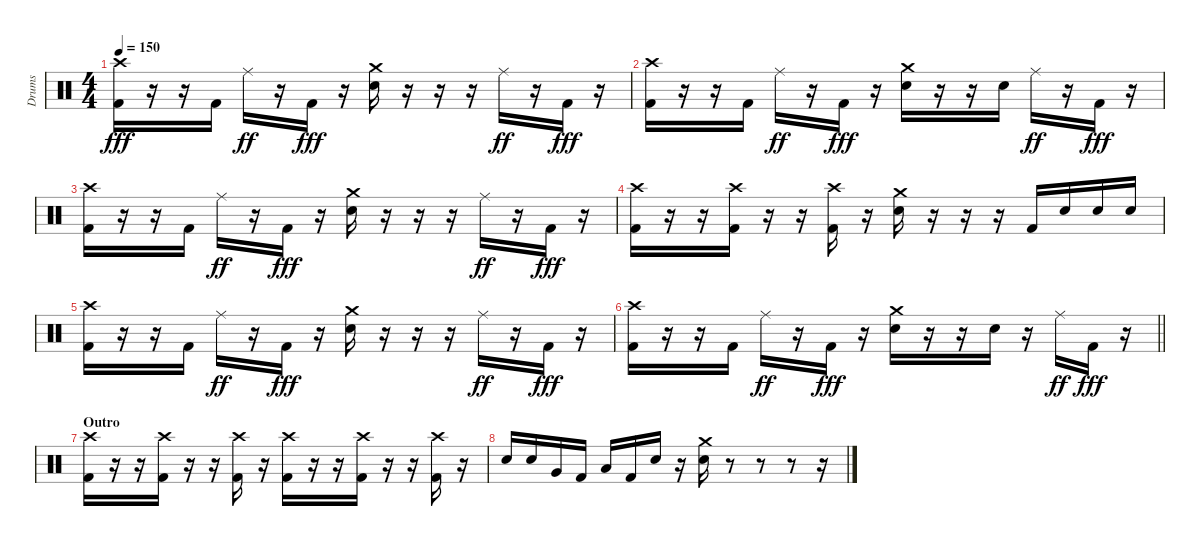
\track ("Drums" "Drums") {instrument percussion}
\staff {score}
\articulation defaults
\ts (4 4)
\tempo 150
\clef neutral
\ks c
("Crash high (hit)" "Kick (hit) 2").16{dy fff} r.16 r.16 "Kick (hit) 2".16 "Ride (middle)".16{dy ff} r.16 "Kick (hit) 2".16{dy fff} r.16 ("Crash medium (hit)" "Electric Snare (hit)").16 r.16 r.16 r.16 "Ride (middle)".16{dy ff} r.16 "Kick (hit) 2".16{dy fff} r.16 |
("Crash high (hit)" "Kick (hit) 2").16 r.16 r.16 "Kick (hit) 2".16 "Ride (middle)".16{dy ff} r.16 "Kick (hit) 2".16{dy fff} r.16 ("Crash medium (hit)" "Electric Snare (hit)").16 r.16 r.16 "Electric Snare (hit)".16 "Ride (middle)".16{dy ff} r.16 "Kick (hit) 2".16{dy fff} r.16 |
("Crash high (hit)" "Kick (hit) 2").16 r.16 r.16 "Kick (hit) 2".16 "Ride (middle)".16{dy ff} r.16 "Kick (hit) 2".16{dy fff} r.16 ("Crash medium (hit)" "Electric Snare (hit)").16 r.16 r.16 r.16 "Ride (middle)".16{dy ff} r.16 "Kick (hit) 2".16{dy fff} r.16 |
("Crash high (hit)" "Kick (hit) 2").16 r.16 r.16 ("Crash high (hit)" "Kick (hit) 2").16 r.16 r.16 ("Crash high (hit)" "Kick (hit) 2").16 r.16 ("Crash medium (hit)" "Electric Snare (hit)").16 r.16 r.16 r.16 "Kick (hit) 2".16 "Electric Snare (hit)".16 "Electric Snare (hit)".16 "Electric Snare (hit)".16 |
("Crash high (hit)" "Kick (hit) 2").16 r.16 r.16 "Kick (hit) 2".16 "Ride (middle)".16{dy ff} r.16 "Kick (hit) 2".16{dy fff} r.16 ("Crash medium (hit)" "Electric Snare (hit)").16 r.16 r.16 r.16 "Ride (middle)".16{dy ff} r.16 "Kick (hit) 2".16{dy fff} r.16 |
\barLineRight lightlight
("Crash high (hit)" "Kick (hit) 2").16 r.16 r.16 "Kick (hit) 2".16 "Ride (middle)".16{dy ff} r.16 "Kick (hit) 2".16{dy fff} r.16 ("Crash medium (hit)" "Electric Snare (hit)").16 r.16 r.16 "Electric Snare (hit)".16 r.16 "Ride (middle)".16{dy ff} "Kick (hit) 2".16{dy fff} r.16 |
\section ("" "Outro")
("Crash high (hit)" "Kick (hit) 2").16 r.16 r.16 ("Crash high (hit)" "Kick (hit) 2").16 r.16 r.16 ("Crash high (hit)" "Kick (hit) 2").16 r.16 ("Crash high (hit)" "Kick (hit) 2").16 r.16 r.16 ("Crash high (hit)" "Kick (hit) 2").16 r.16 r.16 ("Crash high (hit)" "Kick (hit) 2").16 r.16 |
"Electric Snare (hit)".16 "Electric Snare (hit)".16 "Very Low Tom (hit)".16 "Kick (hit) 2".16 "Low Floor Tom (hit)".16 "Kick (hit) 2".16 "Electric Snare (hit)".16 r.16 ("Crash medium (hit)" "Electric Snare (hit)").16 r.8 r.8 r.8 r.16
